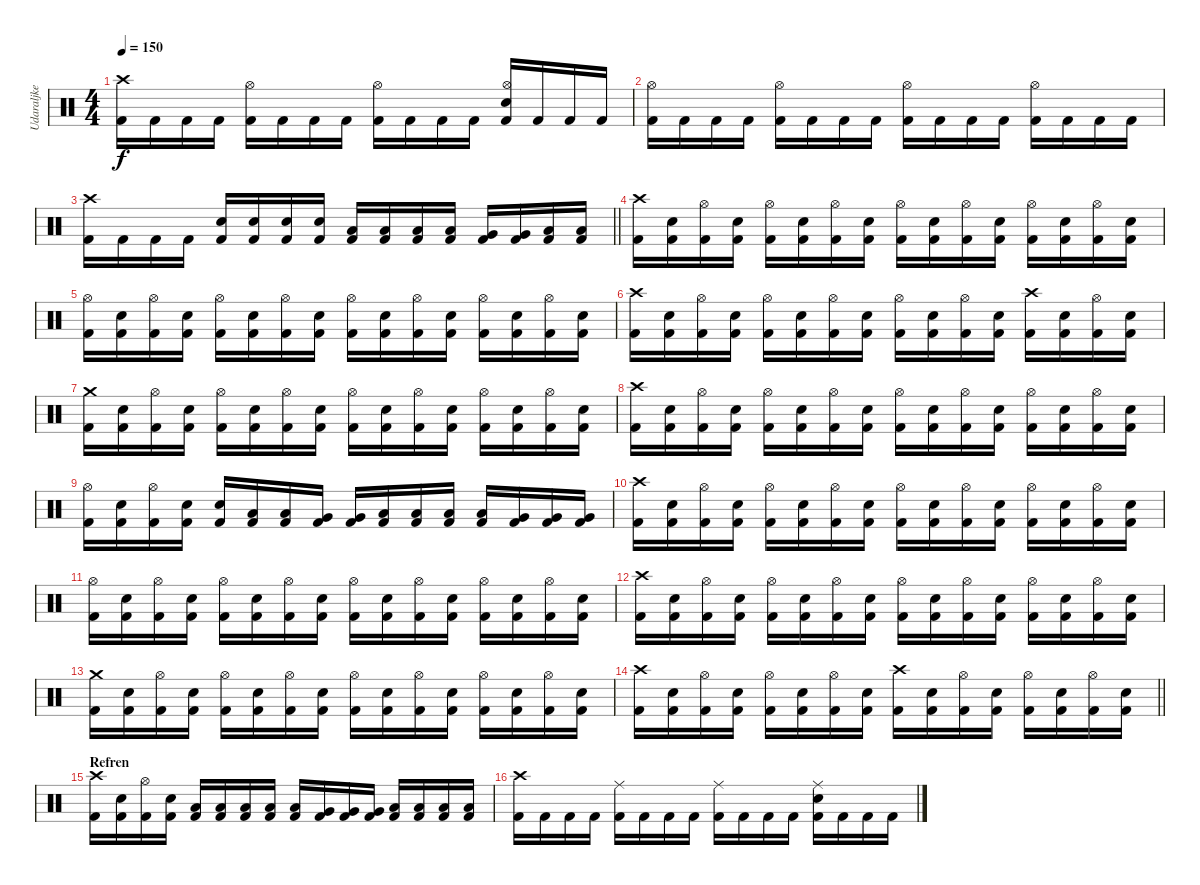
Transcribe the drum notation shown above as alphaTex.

\track ("Udaraljke" "Udaraljke") {instrument percussion}
\staff {score}
\articulation defaults
\ts (4 4)
\tempo 150
\clef neutral
\ks c
("Crash high (hit)" "Kick (hit) 2").16{dy f} "Kick (hit) 2".16 "Kick (hit) 2".16 "Kick (hit) 2".16 ("Hi-Hat (open)" "Kick (hit) 2").16 "Kick (hit) 2".16 "Kick (hit) 2".16 "Kick (hit) 2".16 ("Hi-Hat (open)" "Kick (hit) 2").16 "Kick (hit) 2".16 "Kick (hit) 2".16 "Kick (hit) 2".16 ("Hi-Hat (open)" "Electric Snare (hit)" "Kick (hit) 2").16 "Kick (hit) 2".16 "Kick (hit) 2".16 "Kick (hit) 2".16 |
("Hi-Hat (open)" "Kick (hit) 2").16 "Kick (hit) 2".16 "Kick (hit) 2".16 "Kick (hit) 2".16 ("Hi-Hat (open)" "Kick (hit) 2").16 "Kick (hit) 2".16 "Kick (hit) 2".16 "Kick (hit) 2".16 ("Hi-Hat (open)" "Kick (hit) 2").16 "Kick (hit) 2".16 "Kick (hit) 2".16 "Kick (hit) 2".16 ("Hi-Hat (open)" "Kick (hit) 2").16 "Kick (hit) 2".16 "Kick (hit) 2".16 "Kick (hit) 2".16 |
\barLineRight lightlight
("Crash high (hit)" "Kick (hit) 2").16 "Kick (hit) 2".16 "Kick (hit) 2".16 "Kick (hit) 2".16 ("Electric Snare (hit)" "Kick (hit) 2").16 ("Electric Snare (hit)" "Kick (hit) 2").16 ("Electric Snare (hit)" "Kick (hit) 2").16 ("Electric Snare (hit)" "Kick (hit) 2").16 ("Low Floor Tom (hit)" "Kick (hit) 2").16 ("Low Floor Tom (hit)" "Kick (hit) 2").16 ("Low Floor Tom (hit)" "Kick (hit) 2").16 ("Low Floor Tom (hit)" "Kick (hit) 2").16 ("Very Low Tom (hit)" "Kick (hit) 2").16 ("Very Low Tom (hit)" "Kick (hit) 2").16 ("Low Tom (hit)" "Kick (hit) 2").16 ("Low Tom (hit)" "Kick (hit) 2").16 |
("Crash high (hit)" "Kick (hit) 2").16 ("Electric Snare (hit)" "Kick (hit) 2").16 ("Hi-Hat (open)" "Kick (hit) 2").16 ("Electric Snare (hit)" "Kick (hit) 2").16 ("Hi-Hat (open)" "Kick (hit) 2").16 ("Electric Snare (hit)" "Kick (hit) 2").16 ("Hi-Hat (open)" "Kick (hit) 2").16 ("Electric Snare (hit)" "Kick (hit) 2").16 ("Hi-Hat (open)" "Kick (hit) 2").16 ("Electric Snare (hit)" "Kick (hit) 2").16 ("Hi-Hat (open)" "Kick (hit) 2").16 ("Electric Snare (hit)" "Kick (hit) 2").16 ("Hi-Hat (open)" "Kick (hit) 2").16 ("Electric Snare (hit)" "Kick (hit) 2").16 ("Hi-Hat (open)" "Kick (hit) 2").16 ("Electric Snare (hit)" "Kick (hit) 2").16 |
("Hi-Hat (open)" "Kick (hit) 2").16 ("Electric Snare (hit)" "Kick (hit) 2").16 ("Hi-Hat (open)" "Kick (hit) 2").16 ("Electric Snare (hit)" "Kick (hit) 2").16 ("Hi-Hat (open)" "Kick (hit) 2").16 ("Electric Snare (hit)" "Kick (hit) 2").16 ("Hi-Hat (open)" "Kick (hit) 2").16 ("Electric Snare (hit)" "Kick (hit) 2").16 ("Hi-Hat (open)" "Kick (hit) 2").16 ("Electric Snare (hit)" "Kick (hit) 2").16 ("Hi-Hat (open)" "Kick (hit) 2").16 ("Electric Snare (hit)" "Kick (hit) 2").16 ("Hi-Hat (open)" "Kick (hit) 2").16 ("Electric Snare (hit)" "Kick (hit) 2").16 ("Hi-Hat (open)" "Kick (hit) 2").16 ("Electric Snare (hit)" "Kick (hit) 2").16 |
("Crash high (hit)" "Kick (hit) 2").16 ("Electric Snare (hit)" "Kick (hit) 2").16 ("Hi-Hat (open)" "Kick (hit) 2").16 ("Electric Snare (hit)" "Kick (hit) 2").16 ("Hi-Hat (open)" "Kick (hit) 2").16 ("Electric Snare (hit)" "Kick (hit) 2").16 ("Hi-Hat (open)" "Kick (hit) 2").16 ("Electric Snare (hit)" "Kick (hit) 2").16 ("Hi-Hat (open)" "Kick (hit) 2").16 ("Electric Snare (hit)" "Kick (hit) 2").16 ("Hi-Hat (open)" "Kick (hit) 2").16 ("Electric Snare (hit)" "Kick (hit) 2").16 ("Crash high (hit)" "Kick (hit) 2").16 ("Electric Snare (hit)" "Kick (hit) 2").16 ("Hi-Hat (open)" "Kick (hit) 2").16 ("Electric Snare (hit)" "Kick (hit) 2").16 |
("Crash medium (hit)" "Kick (hit) 2").16 ("Electric Snare (hit)" "Kick (hit) 2").16 ("Hi-Hat (open)" "Kick (hit) 2").16 ("Electric Snare (hit)" "Kick (hit) 2").16 ("Hi-Hat (open)" "Kick (hit) 2").16 ("Electric Snare (hit)" "Kick (hit) 2").16 ("Hi-Hat (open)" "Kick (hit) 2").16 ("Electric Snare (hit)" "Kick (hit) 2").16 ("Hi-Hat (open)" "Kick (hit) 2").16 ("Electric Snare (hit)" "Kick (hit) 2").16 ("Hi-Hat (open)" "Kick (hit) 2").16 ("Electric Snare (hit)" "Kick (hit) 2").16 ("Hi-Hat (open)" "Kick (hit) 2").16 ("Electric Snare (hit)" "Kick (hit) 2").16 ("Hi-Hat (open)" "Kick (hit) 2").16 ("Electric Snare (hit)" "Kick (hit) 2").16 |
("Crash high (hit)" "Kick (hit) 2").16 ("Electric Snare (hit)" "Kick (hit) 2").16 ("Hi-Hat (open)" "Kick (hit) 2").16 ("Electric Snare (hit)" "Kick (hit) 2").16 ("Hi-Hat (open)" "Kick (hit) 2").16 ("Electric Snare (hit)" "Kick (hit) 2").16 ("Hi-Hat (open)" "Kick (hit) 2").16 ("Electric Snare (hit)" "Kick (hit) 2").16 ("Hi-Hat (open)" "Kick (hit) 2").16 ("Electric Snare (hit)" "Kick (hit) 2").16 ("Hi-Hat (open)" "Kick (hit) 2").16 ("Electric Snare (hit)" "Kick (hit) 2").16 ("Hi-Hat (open)" "Kick (hit) 2").16 ("Electric Snare (hit)" "Kick (hit) 2").16 ("Hi-Hat (open)" "Kick (hit) 2").16 ("Electric Snare (hit)" "Kick (hit) 2").16 |
("Hi-Hat (open)" "Kick (hit) 2").16 ("Electric Snare (hit)" "Kick (hit) 2").16 ("Hi-Hat (open)" "Kick (hit) 2").16 ("Electric Snare (hit)" "Kick (hit) 2").16 ("Electric Snare (hit)" "Kick (hit) 2").16 ("Low Floor Tom (hit)" "Kick (hit) 2").16 ("Low Floor Tom (hit)" "Kick (hit) 2").16 ("Very Low Tom (hit)" "Kick (hit) 2").16 ("Very Low Tom (hit)" "Kick (hit) 2").16 ("Low Tom (hit)" "Kick (hit) 2").16 ("Low Tom (hit)" "Kick (hit) 2").16 ("Low Floor Tom (hit)" "Kick (hit) 2").16 ("Low Floor Tom (hit)" "Kick (hit) 2").16 ("Very Low Tom (hit)" "Kick (hit) 2").16 ("Very Low Tom (hit)" "Kick (hit) 2").16 ("Very Low Tom (hit)" "Kick (hit) 2").16 |
("Crash high (hit)" "Kick (hit) 2").16 ("Electric Snare (hit)" "Kick (hit) 2").16 ("Hi-Hat (open)" "Kick (hit) 2").16 ("Electric Snare (hit)" "Kick (hit) 2").16 ("Hi-Hat (open)" "Kick (hit) 2").16 ("Electric Snare (hit)" "Kick (hit) 2").16 ("Hi-Hat (open)" "Kick (hit) 2").16 ("Electric Snare (hit)" "Kick (hit) 2").16 ("Hi-Hat (open)" "Kick (hit) 2").16 ("Electric Snare (hit)" "Kick (hit) 2").16 ("Hi-Hat (open)" "Kick (hit) 2").16 ("Electric Snare (hit)" "Kick (hit) 2").16 ("Hi-Hat (open)" "Kick (hit) 2").16 ("Electric Snare (hit)" "Kick (hit) 2").16 ("Hi-Hat (open)" "Kick (hit) 2").16 ("Electric Snare (hit)" "Kick (hit) 2").16 |
("Hi-Hat (open)" "Kick (hit) 2").16 ("Electric Snare (hit)" "Kick (hit) 2").16 ("Hi-Hat (open)" "Kick (hit) 2").16 ("Electric Snare (hit)" "Kick (hit) 2").16 ("Hi-Hat (open)" "Kick (hit) 2").16 ("Electric Snare (hit)" "Kick (hit) 2").16 ("Hi-Hat (open)" "Kick (hit) 2").16 ("Electric Snare (hit)" "Kick (hit) 2").16 ("Hi-Hat (open)" "Kick (hit) 2").16 ("Electric Snare (hit)" "Kick (hit) 2").16 ("Hi-Hat (open)" "Kick (hit) 2").16 ("Electric Snare (hit)" "Kick (hit) 2").16 ("Hi-Hat (open)" "Kick (hit) 2").16 ("Electric Snare (hit)" "Kick (hit) 2").16 ("Hi-Hat (open)" "Kick (hit) 2").16 ("Electric Snare (hit)" "Kick (hit) 2").16 |
("Crash high (hit)" "Kick (hit) 2").16 ("Electric Snare (hit)" "Kick (hit) 2").16 ("Hi-Hat (open)" "Kick (hit) 2").16 ("Electric Snare (hit)" "Kick (hit) 2").16 ("Hi-Hat (open)" "Kick (hit) 2").16 ("Electric Snare (hit)" "Kick (hit) 2").16 ("Hi-Hat (open)" "Kick (hit) 2").16 ("Electric Snare (hit)" "Kick (hit) 2").16 ("Hi-Hat (open)" "Kick (hit) 2").16 ("Electric Snare (hit)" "Kick (hit) 2").16 ("Hi-Hat (open)" "Kick (hit) 2").16 ("Electric Snare (hit)" "Kick (hit) 2").16 ("Hi-Hat (open)" "Kick (hit) 2").16 ("Electric Snare (hit)" "Kick (hit) 2").16 ("Hi-Hat (open)" "Kick (hit) 2").16 ("Electric Snare (hit)" "Kick (hit) 2").16 |
("Crash medium (hit)" "Kick (hit) 2").16 ("Electric Snare (hit)" "Kick (hit) 2").16 ("Hi-Hat (open)" "Kick (hit) 2").16 ("Electric Snare (hit)" "Kick (hit) 2").16 ("Hi-Hat (open)" "Kick (hit) 2").16 ("Electric Snare (hit)" "Kick (hit) 2").16 ("Hi-Hat (open)" "Kick (hit) 2").16 ("Electric Snare (hit)" "Kick (hit) 2").16 ("Hi-Hat (open)" "Kick (hit) 2").16 ("Electric Snare (hit)" "Kick (hit) 2").16 ("Hi-Hat (open)" "Kick (hit) 2").16 ("Electric Snare (hit)" "Kick (hit) 2").16 ("Hi-Hat (open)" "Kick (hit) 2").16 ("Electric Snare (hit)" "Kick (hit) 2").16 ("Hi-Hat (open)" "Kick (hit) 2").16 ("Electric Snare (hit)" "Kick (hit) 2").16 |
\barLineRight lightlight
("Crash high (hit)" "Kick (hit) 2").16 ("Electric Snare (hit)" "Kick (hit) 2").16 ("Hi-Hat (open)" "Kick (hit) 2").16 ("Electric Snare (hit)" "Kick (hit) 2").16 ("Hi-Hat (open)" "Kick (hit) 2").16 ("Electric Snare (hit)" "Kick (hit) 2").16 ("Hi-Hat (open)" "Kick (hit) 2").16 ("Electric Snare (hit)" "Kick (hit) 2").16 ("Crash high (hit)" "Kick (hit) 2").16 ("Electric Snare (hit)" "Kick (hit) 2").16 ("Hi-Hat (open)" "Kick (hit) 2").16 ("Electric Snare (hit)" "Kick (hit) 2").16 ("Hi-Hat (open)" "Kick (hit) 2").16 ("Electric Snare (hit)" "Kick (hit) 2").16 ("Hi-Hat (open)" "Kick (hit) 2").16 ("Electric Snare (hit)" "Kick (hit) 2").16 |
\section ("" "Refren")
("Crash high (hit)" "Kick (hit) 2").16 ("Electric Snare (hit)" "Kick (hit) 2").16 ("Hi-Hat (open)" "Kick (hit) 2").16 ("Electric Snare (hit)" "Kick (hit) 2").16 ("Low Floor Tom (hit)" "Kick (hit) 2").16 ("Low Floor Tom (hit)" "Kick (hit) 2").16 ("Low Floor Tom (hit)" "Kick (hit) 2").16 ("Low Floor Tom (hit)" "Kick (hit) 2").16 ("Low Floor Tom (hit)" "Kick (hit) 2").16 ("Very Low Tom (hit)" "Kick (hit) 2").16 ("Very Low Tom (hit)" "Kick (hit) 2").16 ("Very Low Tom (hit)" "Kick (hit) 2").16 ("Low Tom (hit)" "Kick (hit) 2").16 ("Low Tom (hit)" "Kick (hit) 2").16 ("Low Tom (hit)" "Kick (hit) 2").16 ("Low Tom (hit)" "Kick (hit) 2").16 |
("Crash high (hit)" "Kick (hit) 2").16 "Kick (hit) 2".16 "Kick (hit) 2".16 "Kick (hit) 2".16 ("Ride (middle)" "Kick (hit) 2").16 "Kick (hit) 2".16 "Kick (hit) 2".16 "Kick (hit) 2".16 ("Ride (middle)" "Kick (hit) 2").16 "Kick (hit) 2".16 "Kick (hit) 2".16 "Kick (hit) 2".16 ("Ride (middle)" "Electric Snare (hit)" "Kick (hit) 2").16 "Kick (hit) 2".16 "Kick (hit) 2".16 "Kick (hit) 2".16
